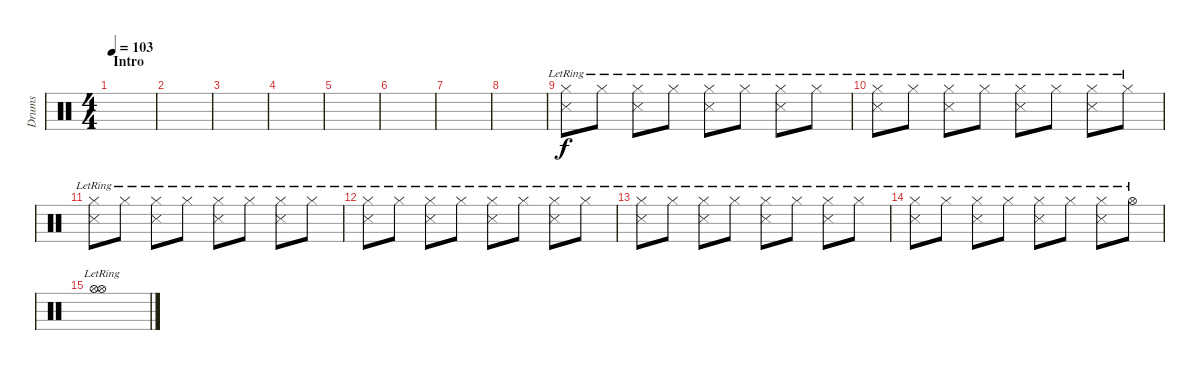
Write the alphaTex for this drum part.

\track ("Drums" "Drums") {instrument percussion}
\staff {score}
\articulation defaults
\ts (4 4)
\section ("" "Intro")
\tempo 103
\clef neutral
\ks c
|
|
|
|
|
|
|
|
("Hi-Hat (closed)"{lr} "Snare (side stick) 3"{lr}).8 "Hi-Hat (closed)"{lr}.8 ("Hi-Hat (closed)"{lr} "Snare (side stick) 3"{lr}).8 "Hi-Hat (closed)"{lr}.8 ("Hi-Hat (closed)"{lr} "Snare (side stick) 3"{lr}).8 "Hi-Hat (closed)"{lr}.8 ("Hi-Hat (closed)"{lr} "Snare (side stick) 3"{lr}).8 "Hi-Hat (closed)"{lr}.8 |
("Hi-Hat (closed)"{lr} "Snare (side stick) 3"{lr}).8 "Hi-Hat (closed)"{lr}.8 ("Hi-Hat (closed)"{lr} "Snare (side stick) 3"{lr}).8 "Hi-Hat (closed)"{lr}.8 ("Hi-Hat (closed)"{lr} "Snare (side stick) 3"{lr}).8 "Hi-Hat (closed)"{lr}.8 ("Hi-Hat (closed)"{lr} "Snare (side stick) 3"{lr}).8 "Hi-Hat (closed)"{lr}.8 |
("Hi-Hat (closed)"{lr} "Snare (side stick) 3"{lr}).8 "Hi-Hat (closed)"{lr}.8 ("Hi-Hat (closed)"{lr} "Snare (side stick) 3"{lr}).8 "Hi-Hat (closed)"{lr}.8 ("Hi-Hat (closed)"{lr} "Snare (side stick) 3"{lr}).8 "Hi-Hat (closed)"{lr}.8 ("Hi-Hat (closed)"{lr} "Snare (side stick) 3"{lr}).8 "Hi-Hat (closed)"{lr}.8 |
("Hi-Hat (closed)"{lr} "Snare (side stick) 3"{lr}).8 "Hi-Hat (closed)"{lr}.8 ("Hi-Hat (closed)"{lr} "Snare (side stick) 3"{lr}).8 "Hi-Hat (closed)"{lr}.8 ("Hi-Hat (closed)"{lr} "Snare (side stick) 3"{lr}).8 "Hi-Hat (closed)"{lr}.8 ("Hi-Hat (closed)"{lr} "Snare (side stick) 3"{lr}).8 "Hi-Hat (closed)"{lr}.8 |
("Hi-Hat (closed)"{lr} "Snare (side stick) 3"{lr}).8 "Hi-Hat (closed)"{lr}.8 ("Hi-Hat (closed)"{lr} "Snare (side stick) 3"{lr}).8 "Hi-Hat (closed)"{lr}.8 ("Hi-Hat (closed)"{lr} "Snare (side stick) 3"{lr}).8 "Hi-Hat (closed)"{lr}.8 ("Hi-Hat (closed)"{lr} "Snare (side stick) 3"{lr}).8 "Hi-Hat (closed)"{lr}.8 |
("Hi-Hat (closed)"{lr} "Snare (side stick) 3"{lr}).8 "Hi-Hat (closed)"{lr}.8 ("Hi-Hat (closed)"{lr} "Snare (side stick) 3"{lr}).8 "Hi-Hat (closed)"{lr}.8 ("Hi-Hat (closed)"{lr} "Snare (side stick) 3"{lr}).8 "Hi-Hat (closed)"{lr}.8 ("Hi-Hat (closed)"{lr} "Snare (side stick) 3"{lr}).8 "Hi-Hat (open)"{lr}.8 |
("Hi-Hat (open)"{lr} "Hi-Hat (open)"{lr}).1
